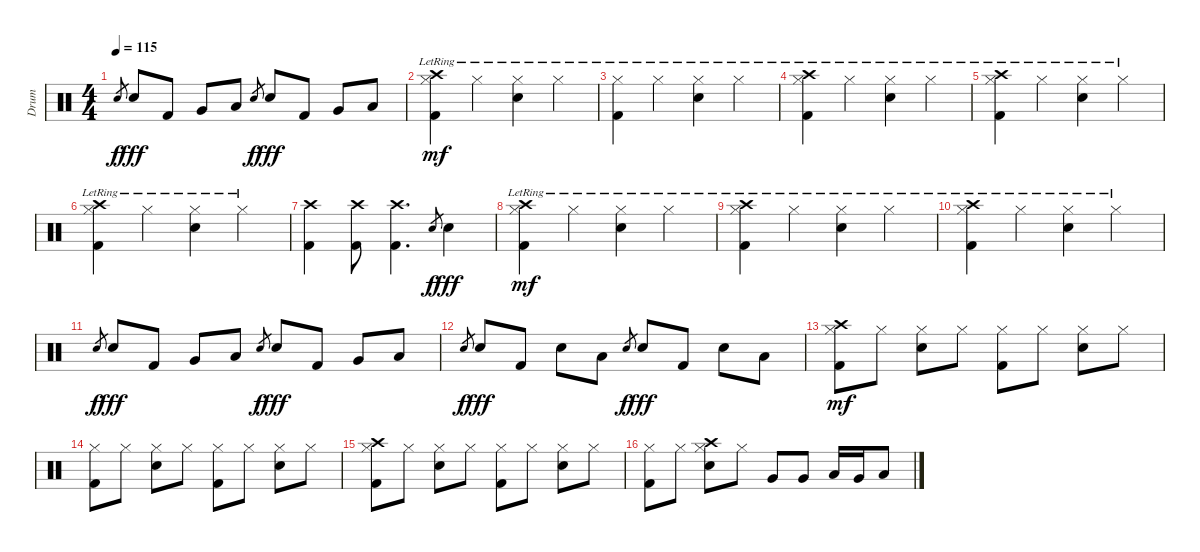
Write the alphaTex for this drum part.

\track ("Drum" "Drum") {instrument percussion}
\staff {score}
\articulation defaults
\ts (4 4)
\tempo 115
\clef neutral
\ks c "Snare (hit) 2".8{gr dy f} "Snare (hit) 2".8{dy fff} "Kick (hit) 2".8 "Very Low Tom (hit)".8 "Low Floor Tom (hit)".8 "Snare (hit) 2".8{gr dy f} "Snare (hit) 2".8{dy fff} "Kick (hit) 2".8 "Very Low Tom (hit)".8 "Low Floor Tom (hit)".8
|
("Kick (hit) 2"{lr} "Hi-Hat (closed)"{lr} "Crash high (hit)"{lr}).4{dy mf} "Hi-Hat (closed)"{lr}.4 ("Snare (hit) 2"{lr} "Hi-Hat (closed)"{lr}).4 "Hi-Hat (closed)"{lr}.4 |
("Kick (hit) 2"{lr} "Hi-Hat (closed)"{lr}).4 "Hi-Hat (closed)"{lr}.4 ("Snare (hit) 2"{lr} "Hi-Hat (closed)"{lr}).4 "Hi-Hat (closed)"{lr}.4 |
("Kick (hit) 2"{lr} "Hi-Hat (closed)"{lr} "Crash high (hit)"{lr}).4 "Hi-Hat (closed)"{lr}.4 ("Snare (hit) 2"{lr} "Hi-Hat (closed)"{lr}).4 "Hi-Hat (closed)"{lr}.4 |
("Kick (hit) 2"{lr} "Hi-Hat (closed)"{lr} "Crash high (hit)").4 "Hi-Hat (closed)"{lr}.4 ("Snare (hit) 2"{lr} "Hi-Hat (closed)"{lr}).4 "Hi-Hat (closed)"{lr}.4 |
("Kick (hit) 2"{lr} "Hi-Hat (closed)"{lr} "Crash high (hit)").4 "Hi-Hat (closed)"{lr}.4 ("Snare (hit) 2"{lr} "Hi-Hat (closed)"{lr}).4 "Hi-Hat (closed)"{lr}.4 |
("Crash high (hit)" "Kick (hit) 2").4 ("Crash high (hit)" "Kick (hit) 2").8 ("Crash high (hit)" "Kick (hit) 2").4{d} "Snare (hit) 2".8{gr dy f} "Snare (hit) 2".4{dy fff} |
("Kick (hit) 2"{lr} "Hi-Hat (closed)"{lr} "Crash high (hit)"{lr}).4{dy mf} "Hi-Hat (closed)"{lr}.4 ("Snare (hit) 2"{lr} "Hi-Hat (closed)"{lr}).4 "Hi-Hat (closed)"{lr}.4 |
("Kick (hit) 2"{lr} "Hi-Hat (closed)"{lr} "Crash high (hit)").4 "Hi-Hat (closed)"{lr}.4 ("Snare (hit) 2"{lr} "Hi-Hat (closed)"{lr}).4 "Hi-Hat (closed)"{lr}.4 |
("Kick (hit) 2"{lr} "Hi-Hat (closed)"{lr} "Crash high (hit)"{lr}).4 "Hi-Hat (closed)"{lr}.4 ("Snare (hit) 2"{lr} "Hi-Hat (closed)"{lr}).4 "Hi-Hat (closed)"{lr}.4 |
"Snare (hit) 2".8{gr dy f} "Snare (hit) 2".8{dy fff} "Kick (hit) 2".8 "Very Low Tom (hit)".8 "Low Floor Tom (hit)".8 "Snare (hit) 2".8{gr dy f} "Snare (hit) 2".8{dy fff} "Kick (hit) 2".8 "Very Low Tom (hit)".8 "Low Floor Tom (hit)".8 |
"Snare (hit) 2".8{gr dy f} "Snare (hit) 2".8{dy fff} "Kick (hit) 2".8 "Snare (hit) 2".8 "Low Floor Tom (hit)".8 "Snare (hit) 2".8{gr dy f} "Snare (hit) 2".8{dy fff} "Kick (hit) 2".8 "Snare (hit) 2".8 "Low Floor Tom (hit)".8 |
("Kick (hit) 2" "Hi-Hat (closed)" "Crash high (hit)").8{dy mf} "Hi-Hat (closed)".8 ("Snare (hit) 2" "Hi-Hat (closed)").8 "Hi-Hat (closed)".8 ("Kick (hit) 2" "Hi-Hat (closed)").8 "Hi-Hat (closed)".8 ("Snare (hit) 2" "Hi-Hat (closed)").8 "Hi-Hat (closed)".8 |
("Kick (hit) 2" "Hi-Hat (closed)").8 "Hi-Hat (closed)".8 ("Snare (hit) 2" "Hi-Hat (closed)").8 "Hi-Hat (closed)".8 ("Kick (hit) 2" "Hi-Hat (closed)").8 "Hi-Hat (closed)".8 ("Snare (hit) 2" "Hi-Hat (closed)").8 "Hi-Hat (closed)".8 |
("Kick (hit) 2" "Hi-Hat (closed)" "Crash high (hit)").8 "Hi-Hat (closed)".8 ("Snare (hit) 2" "Hi-Hat (closed)").8 "Hi-Hat (closed)".8 ("Kick (hit) 2" "Hi-Hat (closed)").8 "Hi-Hat (closed)".8 ("Snare (hit) 2" "Hi-Hat (closed)").8 "Hi-Hat (closed)".8 |
("Kick (hit) 2" "Hi-Hat (closed)").8 "Hi-Hat (closed)".8 ("Snare (hit) 2" "Hi-Hat (closed)" "Crash high (hit)").8 "Hi-Hat (closed)".8 "Very Low Tom (hit)".8 "Very Low Tom (hit)".8 "Low Tom (hit)".16 "Very Low Tom (hit)".16 "Low Floor Tom (hit)".8
